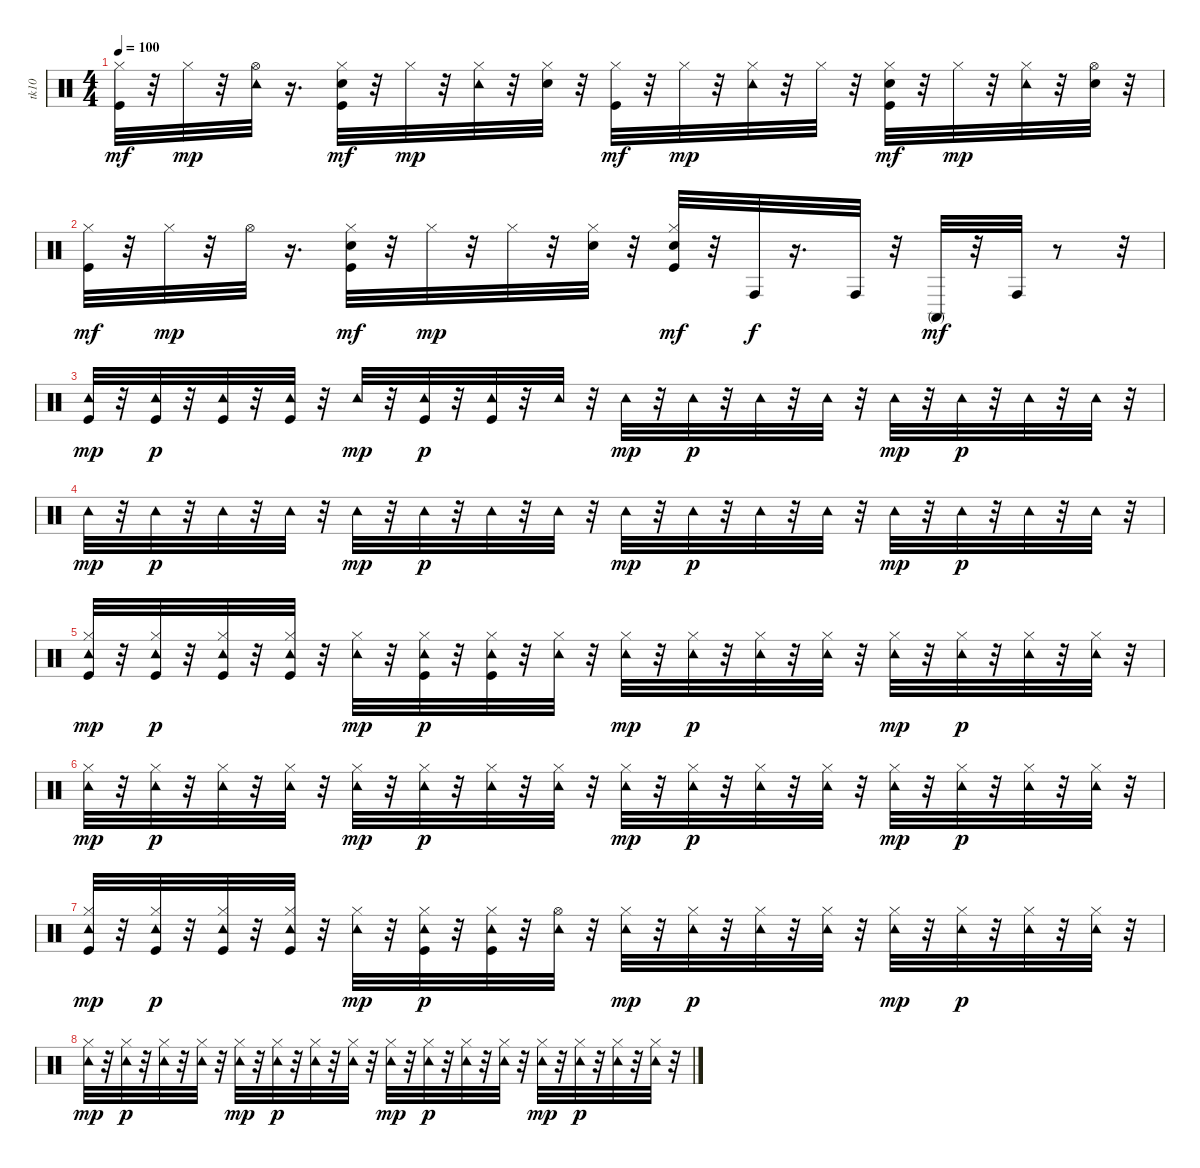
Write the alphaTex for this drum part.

\track ("tk10" "tk10") {instrument percussion}
\staff {score}
\articulation defaults
\ts (4 4)
\tempo 100
\clef neutral
\ks c
("Kick (hit)" "Hi-Hat (closed)").32{dy mf} r.32 "Hi-Hat (closed)".32{dy mp} r.32 ("Hi-Hat (open)" "Tambourine (hit)").32 r.16{d} ("Kick (hit)" "Snare (hit) 2" "Hi-Hat (closed)").32{dy mf} r.32 "Hi-Hat (closed)".32{dy mp} r.32 ("Hi-Hat (closed)" "Tambourine (hit)").32 r.32 ("Snare (hit) 2" "Hi-Hat (closed)").32 r.32 ("Kick (hit)" "Hi-Hat (closed)").32{dy mf} r.32 "Hi-Hat (closed)".32{dy mp} r.32 ("Hi-Hat (closed)" "Tambourine (hit)").32 r.32 "Hi-Hat (closed)".32 r.32 ("Kick (hit)" "Snare (hit) 2" "Hi-Hat (closed)").32{dy mf} r.32 "Hi-Hat (closed)".32{dy mp} r.32 ("Hi-Hat (closed)" "Tambourine (hit)").32 r.32 ("Snare (hit) 2" "Hi-Hat (open)").32 r.32 |
("Kick (hit)" "Hi-Hat (closed)").32{dy mf} r.32 "Hi-Hat (closed)".32{dy mp} r.32 "Hi-Hat (open)".32 r.16{d} ("Kick (hit)" "Snare (hit) 2" "Hi-Hat (closed)").32{dy mf} r.32 "Hi-Hat (closed)".32{dy mp} r.32 "Hi-Hat (closed)".32 r.32 ("Snare (hit) 2" "Hi-Hat (closed)").32 r.32 ("Kick (hit)" "Snare (hit) 2" "Hi-Hat (closed)").32{dy mf} r.32 "Conga high (hit)".32{dy f} r.16{d} "Conga high (hit)".32 r.32 "Conga high (mute)".32{dy mf} r.32 "Conga high (hit)".32 r.8 r.32 |
("Kick (hit)" "Tambourine (hit)").32{dy mp} r.32 ("Kick (hit)" "Tambourine (hit)").32{dy p} r.32 ("Kick (hit)" "Tambourine (hit)").32 r.32 ("Kick (hit)" "Tambourine (hit)").32 r.32 "Tambourine (hit)".32{dy mp} r.32 ("Kick (hit)" "Tambourine (hit)").32{dy p} r.32 ("Kick (hit)" "Tambourine (hit)").32 r.32 "Tambourine (hit)".32 r.32 "Tambourine (hit)".32{dy mp} r.32 "Tambourine (hit)".32{dy p} r.32 "Tambourine (hit)".32 r.32 "Tambourine (hit)".32 r.32 "Tambourine (hit)".32{dy mp} r.32 "Tambourine (hit)".32{dy p} r.32 "Tambourine (hit)".32 r.32 "Tambourine (hit)".32 r.32 |
"Tambourine (hit)".32{dy mp} r.32 "Tambourine (hit)".32{dy p} r.32 "Tambourine (hit)".32 r.32 "Tambourine (hit)".32 r.32 "Tambourine (hit)".32{dy mp} r.32 "Tambourine (hit)".32{dy p} r.32 "Tambourine (hit)".32 r.32 "Tambourine (hit)".32 r.32 "Tambourine (hit)".32{dy mp} r.32 "Tambourine (hit)".32{dy p} r.32 "Tambourine (hit)".32 r.32 "Tambourine (hit)".32 r.32 "Tambourine (hit)".32{dy mp} r.32 "Tambourine (hit)".32{dy p} r.32 "Tambourine (hit)".32 r.32 "Tambourine (hit)".32 r.32 |
("Kick (hit)" "Hi-Hat (closed)" "Tambourine (hit)").32{dy mp} r.32 ("Kick (hit)" "Hi-Hat (closed)" "Tambourine (hit)").32{dy p} r.32 ("Kick (hit)" "Hi-Hat (closed)" "Tambourine (hit)").32 r.32 ("Kick (hit)" "Hi-Hat (closed)" "Tambourine (hit)").32 r.32 ("Hi-Hat (closed)" "Tambourine (hit)").32{dy mp} r.32 ("Kick (hit)" "Hi-Hat (closed)" "Tambourine (hit)").32{dy p} r.32 ("Kick (hit)" "Hi-Hat (closed)" "Tambourine (hit)").32 r.32 ("Hi-Hat (closed)" "Tambourine (hit)").32 r.32 ("Hi-Hat (closed)" "Tambourine (hit)").32{dy mp} r.32 ("Hi-Hat (closed)" "Tambourine (hit)").32{dy p} r.32 ("Hi-Hat (closed)" "Tambourine (hit)").32 r.32 ("Hi-Hat (closed)" "Tambourine (hit)").32 r.32 ("Hi-Hat (closed)" "Tambourine (hit)").32{dy mp} r.32 ("Hi-Hat (closed)" "Tambourine (hit)").32{dy p} r.32 ("Hi-Hat (closed)" "Tambourine (hit)").32 r.32 ("Hi-Hat (closed)" "Tambourine (hit)").32 r.32 |
("Hi-Hat (closed)" "Tambourine (hit)").32{dy mp} r.32 ("Hi-Hat (closed)" "Tambourine (hit)").32{dy p} r.32 ("Hi-Hat (closed)" "Tambourine (hit)").32 r.32 ("Hi-Hat (closed)" "Tambourine (hit)").32 r.32 ("Hi-Hat (closed)" "Tambourine (hit)").32{dy mp} r.32 ("Hi-Hat (closed)" "Tambourine (hit)").32{dy p} r.32 ("Hi-Hat (closed)" "Tambourine (hit)").32 r.32 ("Hi-Hat (closed)" "Tambourine (hit)").32 r.32 ("Hi-Hat (closed)" "Tambourine (hit)").32{dy mp} r.32 ("Hi-Hat (closed)" "Tambourine (hit)").32{dy p} r.32 ("Hi-Hat (closed)" "Tambourine (hit)").32 r.32 ("Hi-Hat (closed)" "Tambourine (hit)").32 r.32 ("Hi-Hat (closed)" "Tambourine (hit)").32{dy mp} r.32 ("Hi-Hat (closed)" "Tambourine (hit)").32{dy p} r.32 ("Hi-Hat (closed)" "Tambourine (hit)").32 r.32 ("Hi-Hat (closed)" "Tambourine (hit)").32 r.32 |
("Kick (hit)" "Hi-Hat (closed)" "Tambourine (hit)").32{dy mp} r.32 ("Kick (hit)" "Hi-Hat (closed)" "Tambourine (hit)").32{dy p} r.32 ("Kick (hit)" "Hi-Hat (closed)" "Tambourine (hit)").32 r.32 ("Kick (hit)" "Hi-Hat (closed)" "Tambourine (hit)").32 r.32 ("Hi-Hat (closed)" "Tambourine (hit)").32{dy mp} r.32 ("Kick (hit)" "Hi-Hat (closed)" "Tambourine (hit)").32{dy p} r.32 ("Kick (hit)" "Hi-Hat (closed)" "Tambourine (hit)").32 r.32 ("Hi-Hat (open)" "Tambourine (hit)").32 r.32 ("Hi-Hat (closed)" "Tambourine (hit)").32{dy mp} r.32 ("Hi-Hat (closed)" "Tambourine (hit)").32{dy p} r.32 ("Hi-Hat (closed)" "Tambourine (hit)").32 r.32 ("Hi-Hat (closed)" "Tambourine (hit)").32 r.32 ("Hi-Hat (closed)" "Tambourine (hit)").32{dy mp} r.32 ("Hi-Hat (closed)" "Tambourine (hit)").32{dy p} r.32 ("Hi-Hat (closed)" "Tambourine (hit)").32 r.32 ("Hi-Hat (closed)" "Tambourine (hit)").32 r.32 |
("Hi-Hat (closed)" "Tambourine (hit)").32{dy mp} r.32 ("Hi-Hat (closed)" "Tambourine (hit)").32{dy p} r.32 ("Hi-Hat (closed)" "Tambourine (hit)").32 r.32 ("Hi-Hat (closed)" "Tambourine (hit)").32 r.32 ("Hi-Hat (closed)" "Tambourine (hit)").32{dy mp} r.32 ("Hi-Hat (closed)" "Tambourine (hit)").32{dy p} r.32 ("Hi-Hat (closed)" "Tambourine (hit)").32 r.32 ("Hi-Hat (closed)" "Tambourine (hit)").32 r.32 ("Hi-Hat (closed)" "Tambourine (hit)").32{dy mp} r.32 ("Hi-Hat (closed)" "Tambourine (hit)").32{dy p} r.32 ("Hi-Hat (closed)" "Tambourine (hit)").32 r.32 ("Hi-Hat (closed)" "Tambourine (hit)").32 r.32 ("Hi-Hat (closed)" "Tambourine (hit)").32{dy mp} r.32 ("Hi-Hat (closed)" "Tambourine (hit)").32{dy p} r.32 ("Hi-Hat (closed)" "Tambourine (hit)").32 r.32 ("Hi-Hat (closed)" "Tambourine (hit)").32 r.32
